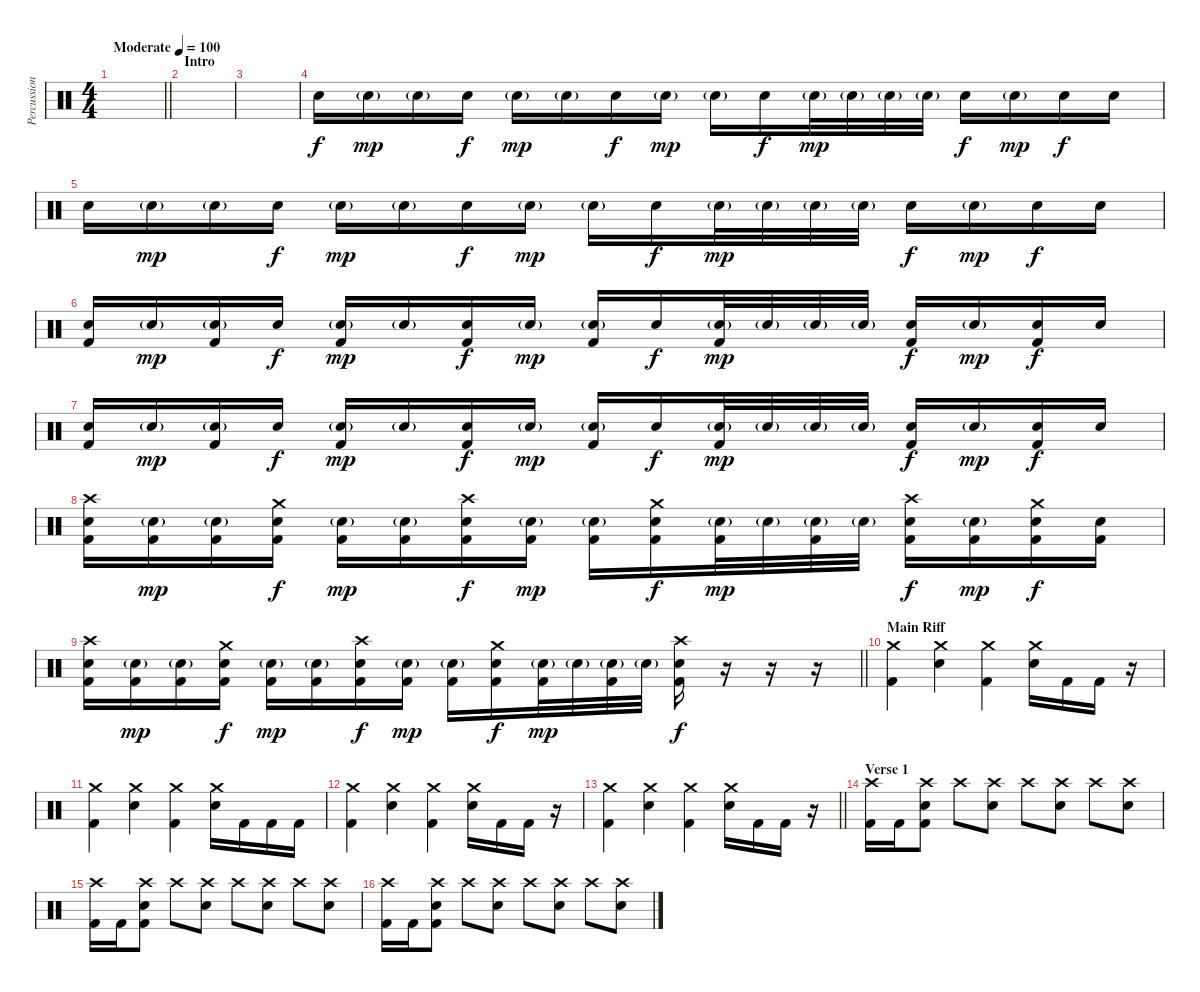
\track ("Percussion" "Percussion") {instrument percussion}
\staff {score}
\articulation defaults
\ts (4 4)
\tempo (100 "Moderate")
\clef neutral
\barLineRight lightlight
\ks c
|
\section ("" "Intro")
|
|
"Electric Snare (hit)".16 "Electric Snare (hit)"{g}.16{dy mp} "Electric Snare (hit)"{g}.16 "Electric Snare (hit)".16{dy f} "Electric Snare (hit)"{g}.16{dy mp} "Electric Snare (hit)"{g}.16 "Electric Snare (hit)".16{dy f} "Electric Snare (hit)"{g}.16{dy mp} "Electric Snare (hit)"{g}.16 "Electric Snare (hit)".16{dy f} "Electric Snare (hit)"{g}.32{dy mp} "Electric Snare (hit)"{g}.32 "Electric Snare (hit)"{g}.32 "Electric Snare (hit)"{g}.32 "Electric Snare (hit)".16{dy f} "Electric Snare (hit)"{g}.16{dy mp} "Electric Snare (hit)".16{dy f} "Electric Snare (hit)".16 |
"Electric Snare (hit)".16 "Electric Snare (hit)"{g}.16{dy mp} "Electric Snare (hit)"{g}.16 "Electric Snare (hit)".16{dy f} "Electric Snare (hit)"{g}.16{dy mp} "Electric Snare (hit)"{g}.16 "Electric Snare (hit)".16{dy f} "Electric Snare (hit)"{g}.16{dy mp} "Electric Snare (hit)"{g}.16 "Electric Snare (hit)".16{dy f} "Electric Snare (hit)"{g}.32{dy mp} "Electric Snare (hit)"{g}.32 "Electric Snare (hit)"{g}.32 "Electric Snare (hit)"{g}.32 "Electric Snare (hit)".16{dy f} "Electric Snare (hit)"{g}.16{dy mp} "Electric Snare (hit)".16{dy f} "Electric Snare (hit)".16 |
("Electric Snare (hit)" "Kick (hit) 2").16 "Electric Snare (hit)"{g}.16{dy mp} ("Electric Snare (hit)"{g} "Kick (hit) 2").16 "Electric Snare (hit)".16{dy f} ("Electric Snare (hit)"{g} "Kick (hit) 2").16{dy mp} "Electric Snare (hit)"{g}.16 ("Electric Snare (hit)" "Kick (hit) 2").16{dy f} "Electric Snare (hit)"{g}.16{dy mp} ("Electric Snare (hit)"{g} "Kick (hit) 2").16 "Electric Snare (hit)".16{dy f} ("Electric Snare (hit)"{g} "Kick (hit) 2").32{dy mp} "Electric Snare (hit)"{g}.32 "Electric Snare (hit)"{g}.32 "Electric Snare (hit)"{g}.32 ("Electric Snare (hit)" "Kick (hit) 2").16{dy f} "Electric Snare (hit)"{g}.16{dy mp} ("Electric Snare (hit)" "Kick (hit) 2").16{dy f} "Electric Snare (hit)".16 |
("Electric Snare (hit)" "Kick (hit) 2").16 "Electric Snare (hit)"{g}.16{dy mp} ("Electric Snare (hit)"{g} "Kick (hit) 2").16 "Electric Snare (hit)".16{dy f} ("Electric Snare (hit)"{g} "Kick (hit) 2").16{dy mp} "Electric Snare (hit)"{g}.16 ("Electric Snare (hit)" "Kick (hit) 2").16{dy f} "Electric Snare (hit)"{g}.16{dy mp} ("Electric Snare (hit)"{g} "Kick (hit) 2").16 "Electric Snare (hit)".16{dy f} ("Electric Snare (hit)"{g} "Kick (hit) 2").32{dy mp} "Electric Snare (hit)"{g}.32 "Electric Snare (hit)"{g}.32 "Electric Snare (hit)"{g}.32 ("Electric Snare (hit)" "Kick (hit) 2").16{dy f} "Electric Snare (hit)"{g}.16{dy mp} ("Electric Snare (hit)" "Kick (hit) 2").16{dy f} "Electric Snare (hit)".16 |
("Crash high (hit)" "Electric Snare (hit)" "Kick (hit) 2").16 ("Electric Snare (hit)"{g} "Kick (hit) 2").16{dy mp} ("Electric Snare (hit)"{g} "Kick (hit) 2").16 ("Crash medium (hit)" "Electric Snare (hit)" "Kick (hit) 2").16{dy f} ("Electric Snare (hit)"{g} "Kick (hit) 2").16{dy mp} ("Electric Snare (hit)"{g} "Kick (hit) 2").16 ("Crash high (hit)" "Electric Snare (hit)" "Kick (hit) 2").16{dy f} ("Electric Snare (hit)"{g} "Kick (hit) 2").16{dy mp} ("Electric Snare (hit)"{g} "Kick (hit) 2").16 ("Crash medium (hit)" "Electric Snare (hit)" "Kick (hit) 2").16{dy f} ("Electric Snare (hit)"{g} "Kick (hit) 2").32{dy mp} "Electric Snare (hit)"{g}.32 ("Electric Snare (hit)"{g} "Kick (hit) 2").32 "Electric Snare (hit)"{g}.32 ("Crash high (hit)" "Electric Snare (hit)" "Kick (hit) 2").16{dy f} ("Electric Snare (hit)"{g} "Kick (hit) 2").16{dy mp} ("Crash medium (hit)" "Electric Snare (hit)" "Kick (hit) 2").16{dy f} ("Electric Snare (hit)" "Kick (hit) 2").16 |
\barLineRight lightlight
("Crash high (hit)" "Electric Snare (hit)" "Kick (hit) 2").16 ("Electric Snare (hit)"{g} "Kick (hit) 2").16{dy mp} ("Electric Snare (hit)"{g} "Kick (hit) 2").16 ("Crash medium (hit)" "Electric Snare (hit)" "Kick (hit) 2").16{dy f} ("Electric Snare (hit)"{g} "Kick (hit) 2").16{dy mp} ("Electric Snare (hit)"{g} "Kick (hit) 2").16 ("Crash high (hit)" "Electric Snare (hit)" "Kick (hit) 2").16{dy f} ("Electric Snare (hit)"{g} "Kick (hit) 2").16{dy mp} ("Electric Snare (hit)"{g} "Kick (hit) 2").16 ("Crash medium (hit)" "Electric Snare (hit)" "Kick (hit) 2").16{dy f} ("Electric Snare (hit)"{g} "Kick (hit) 2").32{dy mp} "Electric Snare (hit)"{g}.32 ("Electric Snare (hit)"{g} "Kick (hit) 2").32 "Electric Snare (hit)"{g}.32 ("Crash high (hit)" "Electric Snare (hit)" "Kick (hit) 2").16{dy f} r.16 r.16 r.16 |
\section ("" "Main Riff")
("Crash medium (hit)" "Kick (hit) 2").4 ("Crash medium (hit)" "Electric Snare (hit)").4 ("Crash medium (hit)" "Kick (hit) 2").4 ("Crash medium (hit)" "Electric Snare (hit)").16 "Kick (hit) 2".16 "Kick (hit) 2".16 r.16 |
("Crash medium (hit)" "Kick (hit) 2").4 ("Crash medium (hit)" "Electric Snare (hit)").4 ("Crash medium (hit)" "Kick (hit) 2").4 ("Crash medium (hit)" "Electric Snare (hit)").16 "Kick (hit) 2".16 "Kick (hit) 2".16 "Kick (hit) 2".16 |
("Crash medium (hit)" "Kick (hit) 2").4 ("Crash medium (hit)" "Electric Snare (hit)").4 ("Crash medium (hit)" "Kick (hit) 2").4 ("Crash medium (hit)" "Electric Snare (hit)").16 "Kick (hit) 2".16 "Kick (hit) 2".16 r.16 |
\barLineRight lightlight
("Crash medium (hit)" "Kick (hit) 2").4 ("Crash medium (hit)" "Electric Snare (hit)").4 ("Crash medium (hit)" "Kick (hit) 2").4 ("Crash medium (hit)" "Electric Snare (hit)").16 "Kick (hit) 2".16 "Kick (hit) 2".16 r.16 |
\section ("" "Verse 1")
("Crash high (hit)" "Kick (hit) 2").16 "Kick (hit) 2".16 ("Crash high (hit)" "Electric Snare (hit)" "Kick (hit) 2").8 "Crash high (hit)".8 ("Crash high (hit)" "Electric Snare (hit)").8 "Crash high (hit)".8 ("Crash high (hit)" "Electric Snare (hit)").8 "Crash high (hit)".8 ("Crash high (hit)" "Electric Snare (hit)").8 |
("Crash high (hit)" "Kick (hit) 2").16 "Kick (hit) 2".16 ("Crash high (hit)" "Electric Snare (hit)" "Kick (hit) 2").8 "Crash high (hit)".8 ("Crash high (hit)" "Electric Snare (hit)").8 "Crash high (hit)".8 ("Crash high (hit)" "Electric Snare (hit)").8 "Crash high (hit)".8 ("Crash high (hit)" "Electric Snare (hit)").8 |
("Crash high (hit)" "Kick (hit) 2").16 "Kick (hit) 2".16 ("Crash high (hit)" "Electric Snare (hit)" "Kick (hit) 2").8 "Crash high (hit)".8 ("Crash high (hit)" "Electric Snare (hit)").8 "Crash high (hit)".8 ("Crash high (hit)" "Electric Snare (hit)").8 "Crash high (hit)".8 ("Crash high (hit)" "Electric Snare (hit)").8
